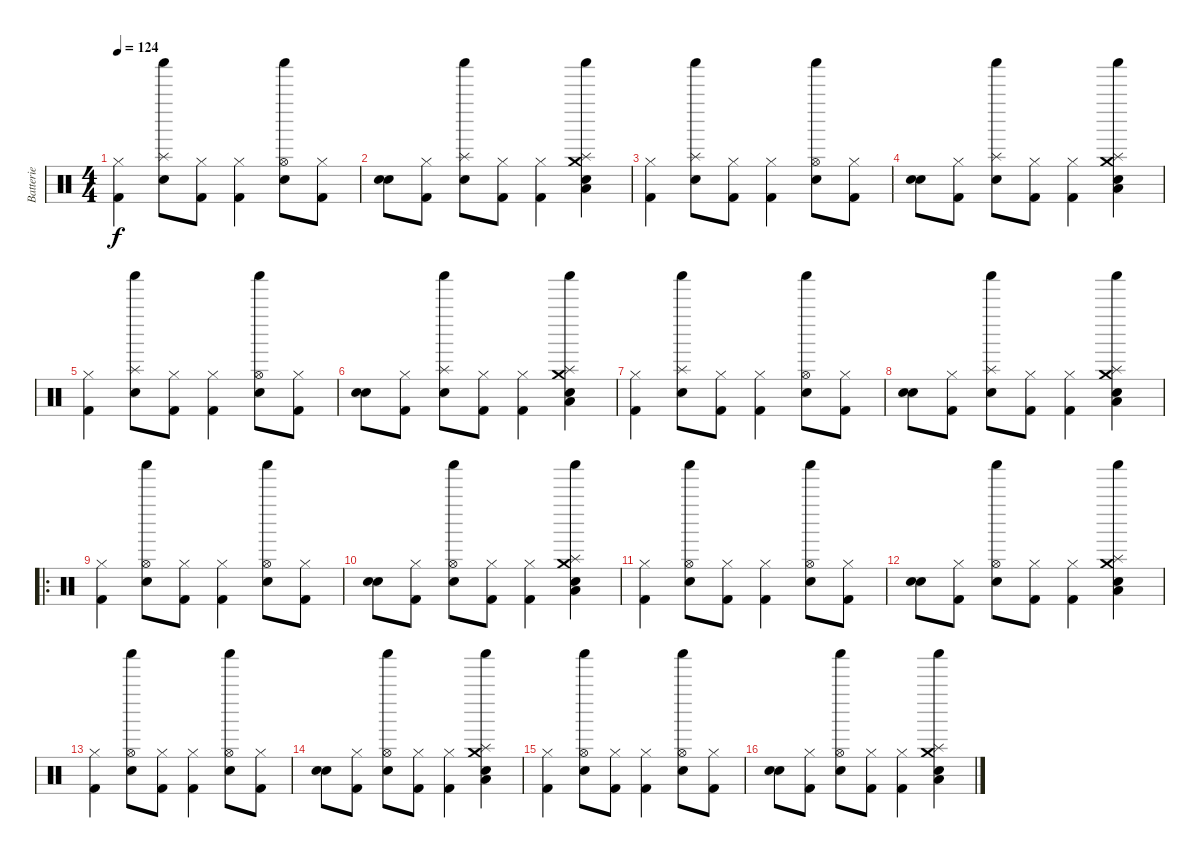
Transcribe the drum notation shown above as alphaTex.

\track ("Batterie" "Batterie") {instrument percussion}
\staff {score}
\articulation defaults
\ts (4 4)
\tempo 124
\clef neutral
\ks c
("Hi-Hat (closed)" "Kick (hit) 2").4{dy f} ("Shaker (hit)" "Splash (hit)" "Snare (hit) 2").8 ("Hi-Hat (closed)" "Kick (hit) 2").8 ("Hi-Hat (closed)" "Kick (hit) 2").4 ("Shaker (hit)" "Hi-Hat (open)" "Snare (hit) 2").8 ("Hi-Hat (closed)" "Kick (hit) 2").8 |
("Snare (hit)" "Snare (hit)").8 ("Hi-Hat (closed)" "Kick (hit) 2").8 ("Shaker (hit)" "Splash (hit)" "Snare (hit) 2").8 ("Hi-Hat (closed)" "Kick (hit) 2").8 ("Hi-Hat (closed)" "Kick (hit) 2").4 ("Shaker (hit)" "Splash (hit)" "Snare (hit) 2" "Crash medium (hit)" "Low Tom (hit)").4 |
("Hi-Hat (closed)" "Kick (hit) 2").4 ("Shaker (hit)" "Splash (hit)" "Snare (hit) 2").8 ("Hi-Hat (closed)" "Kick (hit) 2").8 ("Hi-Hat (closed)" "Kick (hit) 2").4 ("Shaker (hit)" "Hi-Hat (open)" "Snare (hit) 2").8 ("Hi-Hat (closed)" "Kick (hit) 2").8 |
("Snare (hit)" "Snare (hit)").8 ("Hi-Hat (closed)" "Kick (hit) 2").8 ("Shaker (hit)" "Splash (hit)" "Snare (hit) 2").8 ("Hi-Hat (closed)" "Kick (hit) 2").8 ("Hi-Hat (closed)" "Kick (hit) 2").4 ("Shaker (hit)" "Splash (hit)" "Snare (hit) 2" "Crash medium (hit)" "Low Tom (hit)").4 |
("Hi-Hat (closed)" "Kick (hit) 2").4 ("Shaker (hit)" "Splash (hit)" "Snare (hit) 2").8 ("Hi-Hat (closed)" "Kick (hit) 2").8 ("Hi-Hat (closed)" "Kick (hit) 2").4 ("Shaker (hit)" "Hi-Hat (open)" "Snare (hit) 2").8 ("Hi-Hat (closed)" "Kick (hit) 2").8 |
("Snare (hit)" "Snare (hit)").8 ("Hi-Hat (closed)" "Kick (hit) 2").8 ("Shaker (hit)" "Splash (hit)" "Snare (hit) 2").8 ("Hi-Hat (closed)" "Kick (hit) 2").8 ("Hi-Hat (closed)" "Kick (hit) 2").4 ("Shaker (hit)" "Splash (hit)" "Snare (hit) 2" "Crash medium (hit)" "Low Tom (hit)").4 |
("Hi-Hat (closed)" "Kick (hit) 2").4 ("Shaker (hit)" "Splash (hit)" "Snare (hit) 2").8 ("Hi-Hat (closed)" "Kick (hit) 2").8 ("Hi-Hat (closed)" "Kick (hit) 2").4 ("Shaker (hit)" "Hi-Hat (open)" "Snare (hit) 2").8 ("Hi-Hat (closed)" "Kick (hit) 2").8 |
("Snare (hit)" "Snare (hit)").8 ("Hi-Hat (closed)" "Kick (hit) 2").8 ("Shaker (hit)" "Splash (hit)" "Snare (hit) 2").8 ("Hi-Hat (closed)" "Kick (hit) 2").8 ("Hi-Hat (closed)" "Kick (hit) 2").4 ("Shaker (hit)" "Splash (hit)" "Snare (hit) 2" "Crash medium (hit)" "Low Tom (hit)").4 |
\ro
("Hi-Hat (closed)" "Kick (hit) 2").4 ("Shaker (hit)" "Hi-Hat (open)" "Snare (hit) 2").8 ("Hi-Hat (closed)" "Kick (hit) 2").8 ("Hi-Hat (closed)" "Kick (hit) 2").4 ("Shaker (hit)" "Hi-Hat (open)" "Snare (hit) 2").8 ("Hi-Hat (closed)" "Kick (hit) 2").8 |
("Snare (hit)" "Snare (hit)").8 ("Hi-Hat (closed)" "Kick (hit) 2").8 ("Shaker (hit)" "Hi-Hat (open)" "Snare (hit) 2").8 ("Hi-Hat (closed)" "Kick (hit) 2").8 ("Hi-Hat (closed)" "Kick (hit) 2").4 ("Shaker (hit)" "Splash (hit)" "Snare (hit) 2" "Crash medium (hit)" "Low Tom (hit)").4 |
("Hi-Hat (closed)" "Kick (hit) 2").4 ("Shaker (hit)" "Hi-Hat (open)" "Snare (hit) 2").8 ("Hi-Hat (closed)" "Kick (hit) 2").8 ("Hi-Hat (closed)" "Kick (hit) 2").4 ("Shaker (hit)" "Hi-Hat (open)" "Snare (hit) 2").8 ("Hi-Hat (closed)" "Kick (hit) 2").8 |
("Snare (hit)" "Snare (hit)").8 ("Hi-Hat (closed)" "Kick (hit) 2").8 ("Shaker (hit)" "Hi-Hat (open)" "Snare (hit) 2").8 ("Hi-Hat (closed)" "Kick (hit) 2").8 ("Hi-Hat (closed)" "Kick (hit) 2").4 ("Shaker (hit)" "Splash (hit)" "Snare (hit) 2" "Crash medium (hit)" "Low Tom (hit)").4 |
("Hi-Hat (closed)" "Kick (hit) 2").4 ("Shaker (hit)" "Hi-Hat (open)" "Snare (hit) 2").8 ("Hi-Hat (closed)" "Kick (hit) 2").8 ("Hi-Hat (closed)" "Kick (hit) 2").4 ("Shaker (hit)" "Hi-Hat (open)" "Snare (hit) 2").8 ("Hi-Hat (closed)" "Kick (hit) 2").8 |
("Snare (hit)" "Snare (hit)").8 ("Hi-Hat (closed)" "Kick (hit) 2").8 ("Shaker (hit)" "Hi-Hat (open)" "Snare (hit) 2").8 ("Hi-Hat (closed)" "Kick (hit) 2").8 ("Hi-Hat (closed)" "Kick (hit) 2").4 ("Shaker (hit)" "Splash (hit)" "Snare (hit) 2" "Crash medium (hit)" "Low Tom (hit)").4 |
("Hi-Hat (closed)" "Kick (hit) 2").4 ("Shaker (hit)" "Hi-Hat (open)" "Snare (hit) 2").8 ("Hi-Hat (closed)" "Kick (hit) 2").8 ("Hi-Hat (closed)" "Kick (hit) 2").4 ("Shaker (hit)" "Hi-Hat (open)" "Snare (hit) 2").8 ("Hi-Hat (closed)" "Kick (hit) 2").8 |
("Snare (hit)" "Snare (hit)").8 ("Hi-Hat (closed)" "Kick (hit) 2").8 ("Shaker (hit)" "Hi-Hat (open)" "Snare (hit) 2").8 ("Hi-Hat (closed)" "Kick (hit) 2").8 ("Hi-Hat (closed)" "Kick (hit) 2").4 ("Shaker (hit)" "Splash (hit)" "Snare (hit) 2" "Crash medium (hit)" "Low Tom (hit)").4
